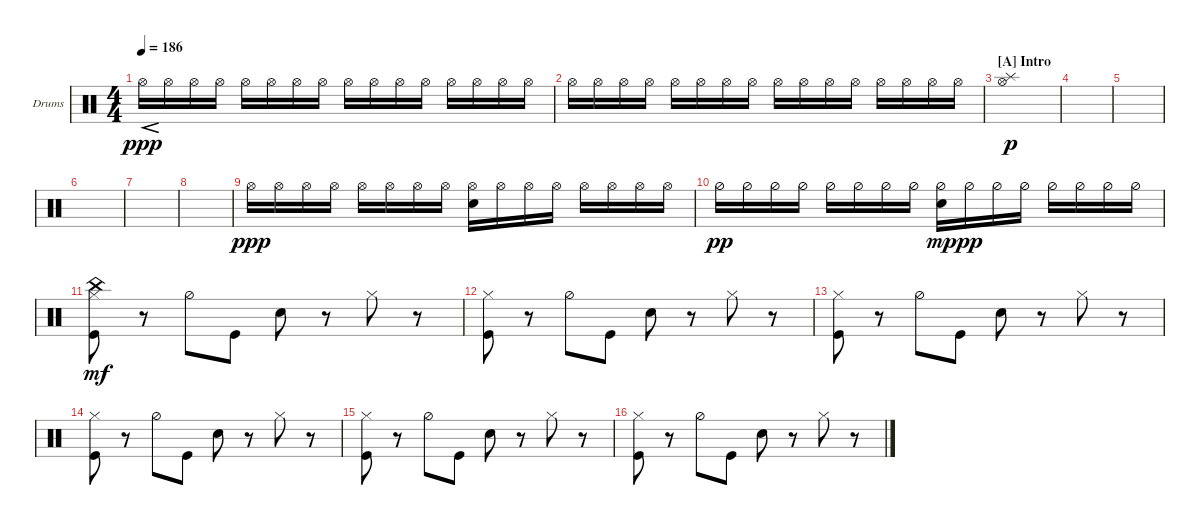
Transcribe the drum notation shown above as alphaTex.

\defaultSystemsLayout 4
\bracketExtendMode groupsimilarinstruments
\firstSystemTrackNameOrientation horizontal
\otherSystemsTrackNameOrientation horizontal
\track ("Drumkit" "Drums") {instrument percussion}
\staff {score}
\articulation defaults
\ts (4 4)
\tempo 186
\clef neutral
\ks c "Hi-Hat (open)".16{cre dy ppp} "Hi-Hat (open)".16 "Hi-Hat (open)".16 "Hi-Hat (open)".16 "Hi-Hat (open)".16 "Hi-Hat (open)".16 "Hi-Hat (open)".16 "Hi-Hat (open)".16 "Hi-Hat (open)".16 "Hi-Hat (open)".16 "Hi-Hat (open)".16 "Hi-Hat (open)".16 "Hi-Hat (open)".16 "Hi-Hat (open)".16 "Hi-Hat (open)".16 "Hi-Hat (open)".16
|
"Hi-Hat (open)".16 "Hi-Hat (open)".16 "Hi-Hat (open)".16 "Hi-Hat (open)".16 "Hi-Hat (open)".16 "Hi-Hat (open)".16 "Hi-Hat (open)".16 "Hi-Hat (open)".16 "Hi-Hat (open)".16 "Hi-Hat (open)".16 "Hi-Hat (open)".16 "Hi-Hat (open)".16 "Hi-Hat (open)".16 "Hi-Hat (open)".16 "Hi-Hat (open)".16 "Hi-Hat (open)".16 |
\section ("A" "Intro")
\scale
0.472222 ("Hi-Hat (open)" "Splash (hit)").1{dy p} |
\scale
0.263889 |
\scale
0.263889 |
\scale
0.333333 |
\scale
0.333333 |
\scale
0.333333 |
\scale
0.333333 "Hi-Hat (open)".16{dy ppp} "Hi-Hat (open)".16 "Hi-Hat (open)".16 "Hi-Hat (open)".16 "Hi-Hat (open)".16 "Hi-Hat (open)".16 "Hi-Hat (open)".16 "Hi-Hat (open)".16 ("Hi-Hat (open)" "Snare (hit) 2").16 "Hi-Hat (open)".16 "Hi-Hat (open)".16 "Hi-Hat (open)".16 "Hi-Hat (open)".16 "Hi-Hat (open)".16 "Hi-Hat (open)".16 "Hi-Hat (open)".16 |
\scale
0.333333 "Hi-Hat (half)".16{dy pp} "Hi-Hat (half)".16 "Hi-Hat (half)".16 "Hi-Hat (half)".16 "Hi-Hat (half)".16 "Hi-Hat (half)".16 "Hi-Hat (half)".16 "Hi-Hat (half)".16 ("Hi-Hat (half)" "Snare (hit) 2").16{dy mp} "Hi-Hat (half)".16{dy pp} "Hi-Hat (half)".16 "Hi-Hat (half)".16 "Hi-Hat (half)".16 "Hi-Hat (half)".16 "Hi-Hat (half)".16 "Hi-Hat (half)".16 |
\scale
0.333333 ("Hi-Hat (closed)" "Kick (hit)" "China (hit)").8{dy mf} r.8 "Hi-Hat (half)".8 "Kick (hit)".8 "Snare (hit) 2".8 r.8 "Hi-Hat (closed)".8 r.8 |
\scale
0.333333 ("Hi-Hat (closed)" "Kick (hit)").8 r.8 "Hi-Hat (half)".8 "Kick (hit)".8 "Snare (hit) 2".8 r.8 "Hi-Hat (closed)".8 r.8 |
\scale
0.333333 ("Hi-Hat (closed)" "Kick (hit)").8 r.8 "Hi-Hat (half)".8 "Kick (hit)".8 "Snare (hit) 2".8 r.8 "Hi-Hat (closed)".8 r.8 |
\scale
0.333333 ("Hi-Hat (closed)" "Kick (hit)").8 r.8 "Hi-Hat (half)".8 "Kick (hit)".8 "Snare (hit) 2".8 r.8 "Hi-Hat (closed)".8 r.8 |
\scale
0.333333 ("Hi-Hat (closed)" "Kick (hit)").8 r.8 "Hi-Hat (half)".8 "Kick (hit)".8 "Snare (hit) 2".8 r.8 "Hi-Hat (closed)".8 r.8 |
\scale
0.333333 ("Hi-Hat (closed)" "Kick (hit)").8 r.8 "Hi-Hat (half)".8 "Kick (hit)".8 "Snare (hit) 2".8 r.8 "Hi-Hat (closed)".8 r.8
